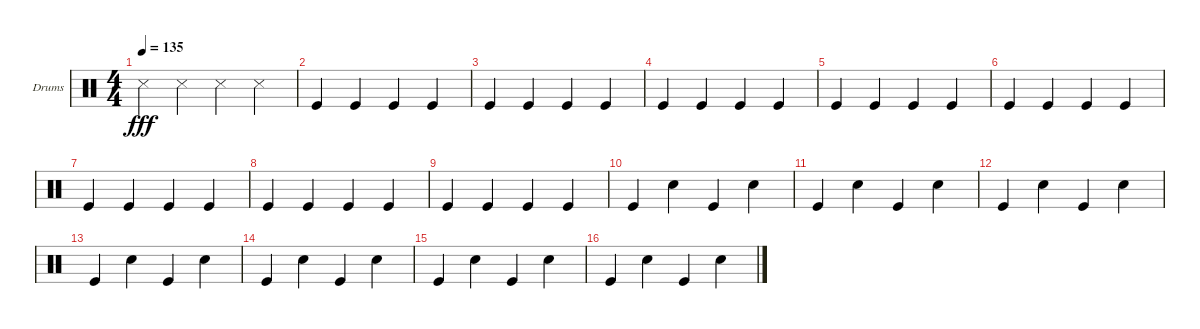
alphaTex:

\defaultSystemsLayout 4
\bracketExtendMode groupsimilarinstruments
\firstSystemTrackNameOrientation horizontal
\otherSystemsTrackNameOrientation horizontal
\track ("Helders" "Drums") {instrument percussion}
\staff {score}
\articulation defaults
\ts (4 4)
\tempo 135
\clef neutral
\ks c "Snare (side stick) 3".4{dy fff} "Snare (side stick) 3".4 "Snare (side stick) 3".4 "Snare (side stick) 3".4
|
"Kick (hit)".4 "Kick (hit)".4 "Kick (hit)".4 "Kick (hit)".4 |
"Kick (hit)".4 "Kick (hit)".4 "Kick (hit)".4 "Kick (hit)".4 |
"Kick (hit)".4 "Kick (hit)".4 "Kick (hit)".4 "Kick (hit)".4 |
"Kick (hit)".4 "Kick (hit)".4 "Kick (hit)".4 "Kick (hit)".4 |
"Kick (hit)".4 "Kick (hit)".4 "Kick (hit)".4 "Kick (hit)".4 |
"Kick (hit)".4 "Kick (hit)".4 "Kick (hit)".4 "Kick (hit)".4 |
"Kick (hit)".4 "Kick (hit)".4 "Kick (hit)".4 "Kick (hit)".4 |
"Kick (hit)".4 "Kick (hit)".4 "Kick (hit)".4 "Kick (hit)".4 |
"Kick (hit)".4 "Snare (hit) 2".4 "Kick (hit)".4 "Snare (hit) 2".4 |
"Kick (hit)".4 "Snare (hit) 2".4 "Kick (hit)".4 "Snare (hit) 2".4 |
"Kick (hit)".4 "Snare (hit) 2".4 "Kick (hit)".4 "Snare (hit) 2".4 |
"Kick (hit)".4 "Snare (hit) 2".4 "Kick (hit)".4 "Snare (hit) 2".4 |
"Kick (hit)".4 "Snare (hit) 2".4 "Kick (hit)".4 "Snare (hit) 2".4 |
"Kick (hit)".4 "Snare (hit) 2".4 "Kick (hit)".4 "Snare (hit) 2".4 |
"Kick (hit)".4 "Snare (hit) 2".4 "Kick (hit)".4 "Snare (hit) 2".4
